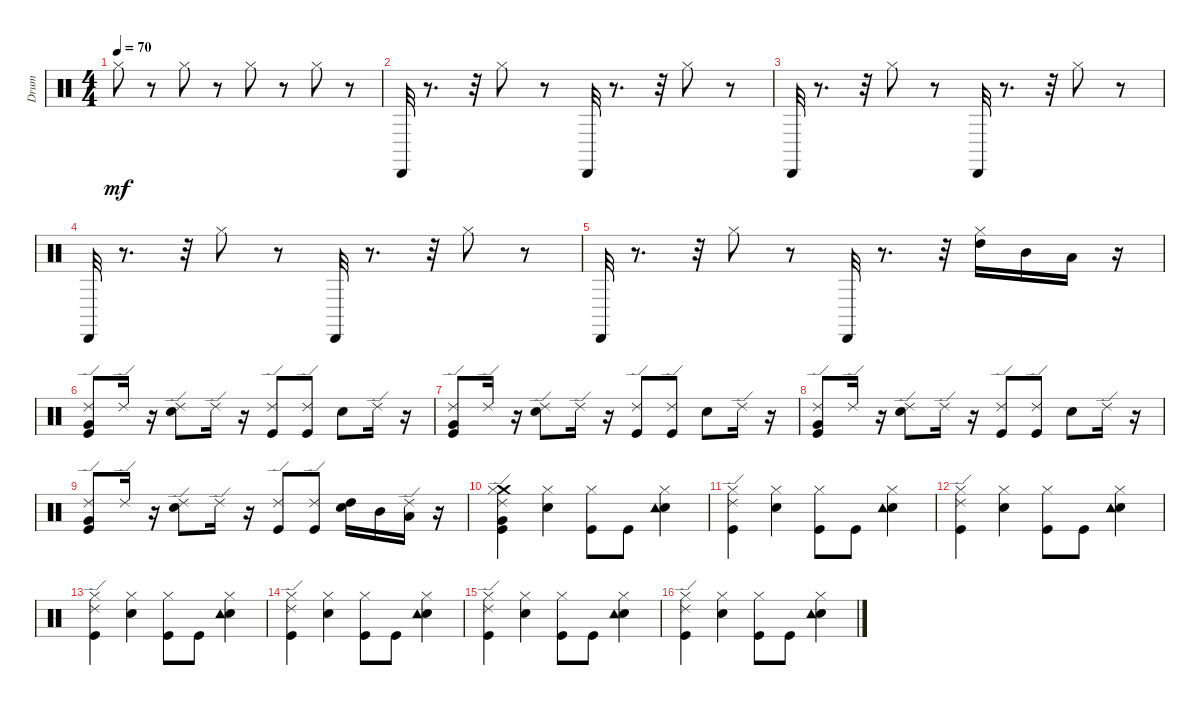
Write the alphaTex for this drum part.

\track ("Drum" "Drum") {instrument percussion}
\staff {score}
\articulation defaults
\ts (4 4)
\tempo 70
\clef neutral
\ks c "Hi-Hat (closed)".8{dy mf}
r.8 "Hi-Hat (closed)".8 r.8 "Hi-Hat (closed)".8 r.8 "Hi-Hat (closed)".8 r.8 |
"Cabasa (hit)".32 r.8{d} r.32 "Hi-Hat (closed)".8 r.8 "Cabasa (hit)".32 r.8{d} r.32 "Hi-Hat (closed)".8 r.8 |
"Cabasa (hit)".32 r.8{d} r.32 "Hi-Hat (closed)".8 r.8 "Cabasa (hit)".32 r.8{d} r.32 "Hi-Hat (closed)".8 r.8 |
"Cabasa (hit)".32 r.8{d} r.32 "Hi-Hat (closed)".8 r.8 "Cabasa (hit)".32 r.8{d} r.32 "Hi-Hat (closed)".8 r.8 |
"Cabasa (hit)".32 r.8{d} r.32 "Hi-Hat (closed)".8 r.8 "Cabasa (hit)".32 r.8{d} r.32 ("Hi-Hat (closed)" "High Tom (hit)").16 "Mid Tom (hit)".16 "Low Tom (hit)".16 r.16 |
("Ride (edge) 2" "Very Low Tom (hit)" "Kick (hit)").8 "Ride (edge) 2".16 r.16 ("Ride (edge) 2" "Electric Snare (hit)").8 "Ride (edge) 2".16 r.16 ("Ride (edge) 2" "Kick (hit)").8 ("Ride (edge) 2" "Kick (hit)").8 "Electric Snare (hit)".8 "Ride (edge) 2".16 r.16 |
("Ride (edge) 2" "Very Low Tom (hit)" "Kick (hit)").8 "Ride (edge) 2".16 r.16 ("Ride (edge) 2" "Electric Snare (hit)").8 "Ride (edge) 2".16 r.16 ("Ride (edge) 2" "Kick (hit)").8 ("Ride (edge) 2" "Kick (hit)").8 "Electric Snare (hit)".8 "Ride (edge) 2".16 r.16 |
("Ride (edge) 2" "Very Low Tom (hit)" "Kick (hit)").8 "Ride (edge) 2".16 r.16 ("Ride (edge) 2" "Electric Snare (hit)").8 "Ride (edge) 2".16 r.16 ("Ride (edge) 2" "Kick (hit)").8 ("Ride (edge) 2" "Kick (hit)").8 "Electric Snare (hit)".8 "Ride (edge) 2".16 r.16 |
("Ride (edge) 2" "Very Low Tom (hit)" "Kick (hit)").8 "Ride (edge) 2".16 r.16 ("Ride (edge) 2" "Electric Snare (hit)").8 "Ride (edge) 2".16 r.16 ("Ride (edge) 2" "Kick (hit)").8 ("Ride (edge) 2" "Kick (hit)").8 ("Electric Snare (hit)" "High Tom (hit)").16 "Mid Tom (hit)".16 ("Low Tom (hit)" "Ride (edge) 2").16 r.16 |
("Crash medium (hit)" "Very Low Tom (hit)" "Ride (edge) 2" "Hi-Hat (closed)" "Kick (hit)").4 ("Hi-Hat (closed)" "Electric Snare (hit)").4 ("Hi-Hat (closed)" "Kick (hit)").8 "Kick (hit)".8 ("Electric Snare (hit)" "Tambourine (hit)" "Hi-Hat (closed)").4 |
("Ride (edge) 2" "Hi-Hat (closed)" "Kick (hit)").4 ("Hi-Hat (closed)" "Electric Snare (hit)").4 ("Hi-Hat (closed)" "Kick (hit)").8 "Kick (hit)".8 ("Electric Snare (hit)" "Tambourine (hit)" "Hi-Hat (closed)").4 |
("Ride (edge) 2" "Hi-Hat (closed)" "Kick (hit)").4 ("Hi-Hat (closed)" "Electric Snare (hit)").4 ("Hi-Hat (closed)" "Kick (hit)").8 "Kick (hit)".8 ("Electric Snare (hit)" "Tambourine (hit)" "Hi-Hat (closed)").4 |
("Ride (edge) 2" "Hi-Hat (closed)" "Kick (hit)").4 ("Hi-Hat (closed)" "Electric Snare (hit)").4 ("Hi-Hat (closed)" "Kick (hit)").8 "Kick (hit)".8 ("Electric Snare (hit)" "Tambourine (hit)" "Hi-Hat (closed)").4 |
("Ride (edge) 2" "Hi-Hat (closed)" "Kick (hit)").4 ("Hi-Hat (closed)" "Electric Snare (hit)").4 ("Hi-Hat (closed)" "Kick (hit)").8 "Kick (hit)".8 ("Electric Snare (hit)" "Tambourine (hit)" "Hi-Hat (closed)").4 |
("Ride (edge) 2" "Hi-Hat (closed)" "Kick (hit)").4 ("Hi-Hat (closed)" "Electric Snare (hit)").4 ("Hi-Hat (closed)" "Kick (hit)").8 "Kick (hit)".8 ("Electric Snare (hit)" "Tambourine (hit)" "Hi-Hat (closed)").4 |
("Ride (edge) 2" "Hi-Hat (closed)" "Kick (hit)").4 ("Hi-Hat (closed)" "Electric Snare (hit)").4 ("Hi-Hat (closed)" "Kick (hit)").8 "Kick (hit)".8 ("Electric Snare (hit)" "Tambourine (hit)" "Hi-Hat (closed)").4
